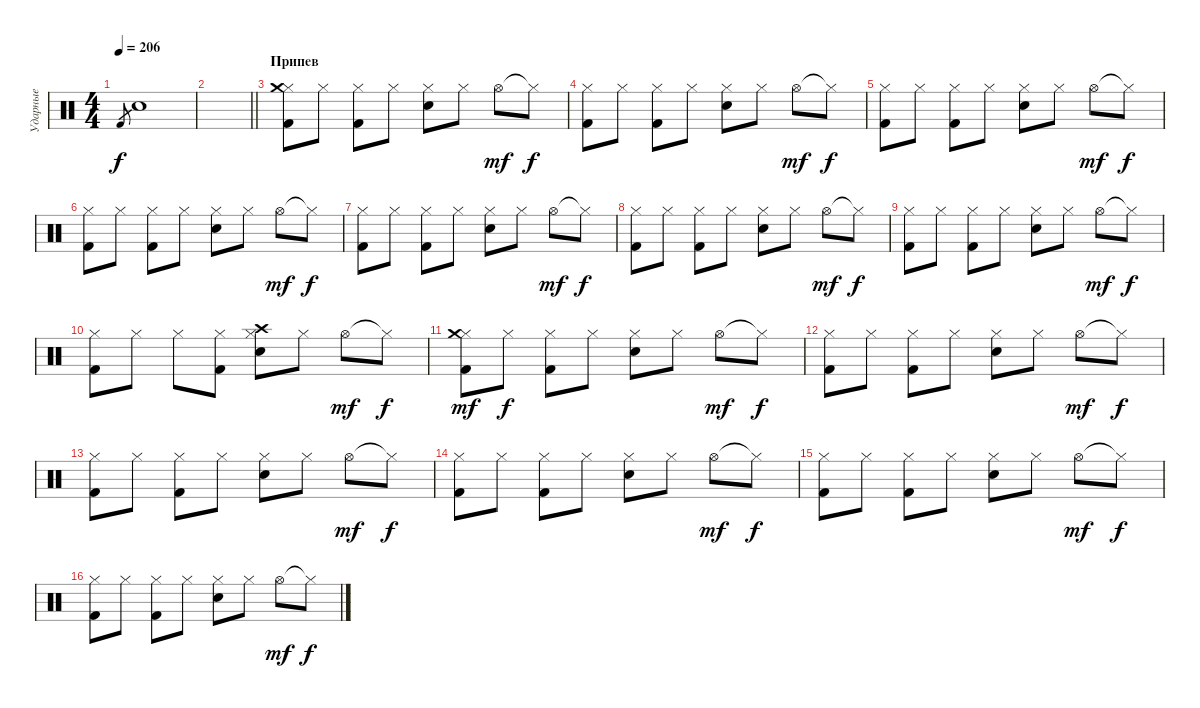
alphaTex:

\track ("Ударные" "Ударные") {instrument percussion}
\staff {score}
\articulation defaults
\ts (4 4)
\tempo 206
\clef neutral
\ks c "Kick (hit) 2".8{gr dy f} "Electric Snare (hit)".1
|
\barLineRight lightlight
|
\section ("" "Припев")
("Hi-Hat (closed)" "Kick (hit) 2" "Crash medium (hit)").8 "Hi-Hat (closed)".8 ("Hi-Hat (closed)" "Kick (hit) 2").8 "Hi-Hat (closed)".8 ("Hi-Hat (closed)" "Electric Snare (hit)").8 "Hi-Hat (closed)".8 "Hi-Hat (open)".8{dy mf} "Hi-Hat (closed)"{t}.8{dy f} |
("Hi-Hat (closed)" "Kick (hit) 2").8 "Hi-Hat (closed)".8 ("Hi-Hat (closed)" "Kick (hit) 2").8 "Hi-Hat (closed)".8 ("Hi-Hat (closed)" "Electric Snare (hit)").8 "Hi-Hat (closed)".8 "Hi-Hat (open)".8{dy mf} "Hi-Hat (closed)"{t}.8{dy f} |
("Hi-Hat (closed)" "Kick (hit) 2").8 "Hi-Hat (closed)".8 ("Hi-Hat (closed)" "Kick (hit) 2").8 "Hi-Hat (closed)".8 ("Hi-Hat (closed)" "Electric Snare (hit)").8 "Hi-Hat (closed)".8 "Hi-Hat (open)".8{dy mf} "Hi-Hat (closed)"{t}.8{dy f} |
("Hi-Hat (closed)" "Kick (hit) 2").8 "Hi-Hat (closed)".8 ("Hi-Hat (closed)" "Kick (hit) 2").8 "Hi-Hat (closed)".8 ("Hi-Hat (closed)" "Electric Snare (hit)").8 "Hi-Hat (closed)".8 "Hi-Hat (open)".8{dy mf} "Hi-Hat (closed)"{t}.8{dy f} |
("Hi-Hat (closed)" "Kick (hit) 2").8 "Hi-Hat (closed)".8 ("Hi-Hat (closed)" "Kick (hit) 2").8 "Hi-Hat (closed)".8 ("Hi-Hat (closed)" "Electric Snare (hit)").8 "Hi-Hat (closed)".8 "Hi-Hat (open)".8{dy mf} "Hi-Hat (closed)"{t}.8{dy f} |
("Hi-Hat (closed)" "Kick (hit) 2").8 "Hi-Hat (closed)".8 ("Hi-Hat (closed)" "Kick (hit) 2").8 "Hi-Hat (closed)".8 ("Hi-Hat (closed)" "Electric Snare (hit)").8 "Hi-Hat (closed)".8 "Hi-Hat (open)".8{dy mf} "Hi-Hat (closed)"{t}.8{dy f} |
("Hi-Hat (closed)" "Kick (hit) 2").8 "Hi-Hat (closed)".8 ("Hi-Hat (closed)" "Kick (hit) 2").8 "Hi-Hat (closed)".8 ("Hi-Hat (closed)" "Electric Snare (hit)").8 "Hi-Hat (closed)".8 "Hi-Hat (open)".8{dy mf} "Hi-Hat (closed)"{t}.8{dy f} |
("Hi-Hat (closed)" "Kick (hit) 2").8 "Hi-Hat (closed)".8 "Hi-Hat (closed)".8 ("Hi-Hat (closed)" "Kick (hit) 2").8 ("Hi-Hat (closed)" "Electric Snare (hit)" "Crash high (hit)").8 "Hi-Hat (closed)".8 "Hi-Hat (open)".8{dy mf} "Hi-Hat (closed)"{t}.8{dy f} |
("Hi-Hat (closed)" "Kick (hit) 2" "Crash medium (hit)").8{dy mf} "Hi-Hat (closed)".8{dy f} ("Hi-Hat (closed)" "Kick (hit) 2").8 "Hi-Hat (closed)".8 ("Hi-Hat (closed)" "Electric Snare (hit)").8 "Hi-Hat (closed)".8 "Hi-Hat (open)".8{dy mf} "Hi-Hat (closed)"{t}.8{dy f} |
("Hi-Hat (closed)" "Kick (hit) 2").8 "Hi-Hat (closed)".8 ("Hi-Hat (closed)" "Kick (hit) 2").8 "Hi-Hat (closed)".8 ("Hi-Hat (closed)" "Electric Snare (hit)").8 "Hi-Hat (closed)".8 "Hi-Hat (open)".8{dy mf} "Hi-Hat (closed)"{t}.8{dy f} |
("Hi-Hat (closed)" "Kick (hit) 2").8 "Hi-Hat (closed)".8 ("Hi-Hat (closed)" "Kick (hit) 2").8 "Hi-Hat (closed)".8 ("Hi-Hat (closed)" "Electric Snare (hit)").8 "Hi-Hat (closed)".8 "Hi-Hat (open)".8{dy mf} "Hi-Hat (closed)"{t}.8{dy f} |
("Hi-Hat (closed)" "Kick (hit) 2").8 "Hi-Hat (closed)".8 ("Hi-Hat (closed)" "Kick (hit) 2").8 "Hi-Hat (closed)".8 ("Hi-Hat (closed)" "Electric Snare (hit)").8 "Hi-Hat (closed)".8 "Hi-Hat (open)".8{dy mf} "Hi-Hat (closed)"{t}.8{dy f} |
("Hi-Hat (closed)" "Kick (hit) 2").8 "Hi-Hat (closed)".8 ("Hi-Hat (closed)" "Kick (hit) 2").8 "Hi-Hat (closed)".8 ("Hi-Hat (closed)" "Electric Snare (hit)").8 "Hi-Hat (closed)".8 "Hi-Hat (open)".8{dy mf} "Hi-Hat (closed)"{t}.8{dy f} |
("Hi-Hat (closed)" "Kick (hit) 2").8 "Hi-Hat (closed)".8 ("Hi-Hat (closed)" "Kick (hit) 2").8 "Hi-Hat (closed)".8 ("Hi-Hat (closed)" "Electric Snare (hit)").8 "Hi-Hat (closed)".8 "Hi-Hat (open)".8{dy mf} "Hi-Hat (closed)"{t}.8{dy f}
